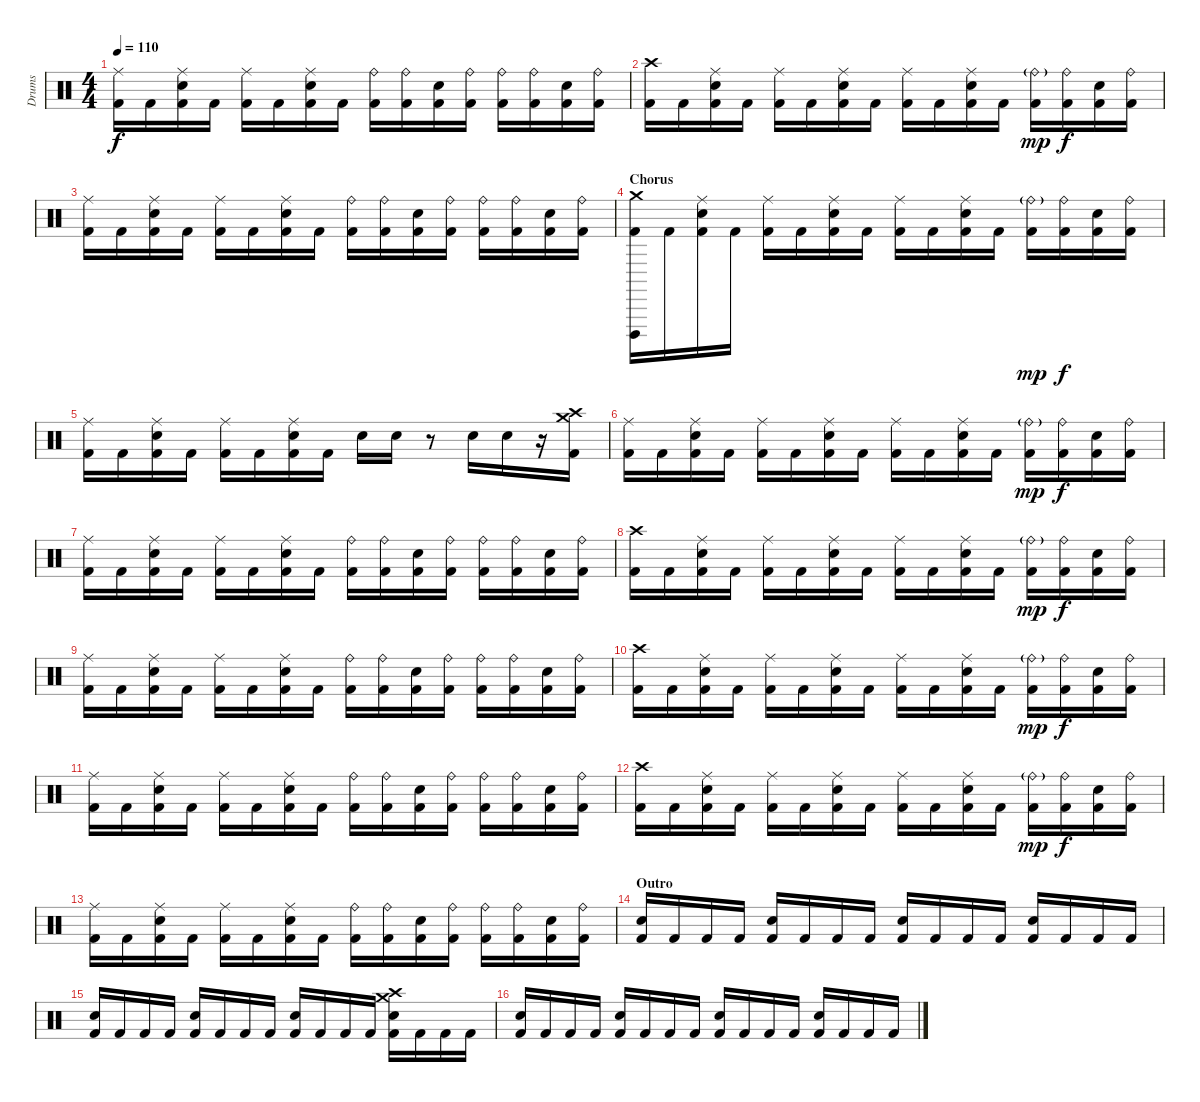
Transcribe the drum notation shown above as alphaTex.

\track ("Drums" "Drums") {instrument percussion}
\staff {score}
\articulation defaults
\ts (4 4)
\tempo 110
\clef neutral
\ks c
("Ride (middle)" "Kick (hit) 2").16{dy f} "Kick (hit) 2".16 ("Ride (middle)" "Snare (hit) 2" "Kick (hit) 2").16 "Kick (hit) 2".16 ("Ride (middle)" "Kick (hit) 2").16 "Kick (hit) 2".16 ("Ride (middle)" "Snare (hit) 2" "Kick (hit) 2").16 "Kick (hit) 2".16 ("Ride (bell)" "Kick (hit) 2").16 ("Ride (bell)" "Kick (hit) 2").16 ("Snare (hit) 2" "Kick (hit) 2").16 ("Ride (bell)" "Kick (hit) 2").16 ("Ride (bell)" "Kick (hit) 2").16 ("Ride (bell)" "Kick (hit) 2").16 ("Snare (hit) 2" "Kick (hit) 2").16 ("Ride (bell)" "Kick (hit) 2").16 |
("Crash high (hit)" "Kick (hit) 2").16 "Kick (hit) 2".16 ("Ride (middle)" "Snare (hit) 2" "Kick (hit) 2").16 "Kick (hit) 2".16 ("Ride (middle)" "Kick (hit) 2").16 "Kick (hit) 2".16 ("Ride (middle)" "Snare (hit) 2" "Kick (hit) 2").16 "Kick (hit) 2".16 ("Ride (middle)" "Kick (hit) 2").16 "Kick (hit) 2".16 ("Ride (middle)" "Snare (hit) 2" "Kick (hit) 2").16 "Kick (hit) 2".16 ("Ride (bell)"{g} "Kick (hit) 2").16{dy mp} ("Ride (bell)" "Kick (hit) 2").16{dy f} ("Snare (hit) 2" "Kick (hit) 2").16 ("Ride (bell)" "Kick (hit) 2").16 |
("Ride (middle)" "Kick (hit) 2").16 "Kick (hit) 2".16 ("Ride (middle)" "Snare (hit) 2" "Kick (hit) 2").16 "Kick (hit) 2".16 ("Ride (middle)" "Kick (hit) 2").16 "Kick (hit) 2".16 ("Ride (middle)" "Snare (hit) 2" "Kick (hit) 2").16 "Kick (hit) 2".16 ("Ride (bell)" "Kick (hit) 2").16 ("Ride (bell)" "Kick (hit) 2").16 ("Snare (hit) 2" "Kick (hit) 2").16 ("Ride (bell)" "Kick (hit) 2").16 ("Ride (bell)" "Kick (hit) 2").16 ("Ride (bell)" "Kick (hit) 2").16 ("Snare (hit) 2" "Kick (hit) 2").16 ("Ride (bell)" "Kick (hit) 2").16 |
\section ("" "Chorus")
("Cuica (open)" "Crash medium (hit)" "Kick (hit) 2").16 "Kick (hit) 2".16 ("Ride (middle)" "Snare (hit) 2" "Kick (hit) 2").16 "Kick (hit) 2".16 ("Ride (middle)" "Kick (hit) 2").16 "Kick (hit) 2".16 ("Ride (middle)" "Snare (hit) 2" "Kick (hit) 2").16 "Kick (hit) 2".16 ("Ride (middle)" "Kick (hit) 2").16 "Kick (hit) 2".16 ("Ride (middle)" "Snare (hit) 2" "Kick (hit) 2").16 "Kick (hit) 2".16 ("Ride (bell)"{g} "Kick (hit) 2").16{dy mp} ("Ride (bell)" "Kick (hit) 2").16{dy f} ("Snare (hit) 2" "Kick (hit) 2").16 ("Ride (bell)" "Kick (hit) 2").16 |
("Ride (middle)" "Kick (hit) 2").16 "Kick (hit) 2".16 ("Ride (middle)" "Snare (hit) 2" "Kick (hit) 2").16 "Kick (hit) 2".16 ("Ride (middle)" "Kick (hit) 2").16 "Kick (hit) 2".16 ("Ride (middle)" "Snare (hit) 2" "Kick (hit) 2").16 "Kick (hit) 2".16 "Snare (hit) 2".16 "Snare (hit) 2".16 r.8 "Snare (hit) 2".16 "Snare (hit) 2".16 r.16 ("Crash high (hit)" "Crash medium (hit)" "Kick (hit) 2").16 |
("Ride (middle)" "Kick (hit) 2").16 "Kick (hit) 2".16 ("Ride (middle)" "Snare (hit) 2" "Kick (hit) 2").16 "Kick (hit) 2".16 ("Ride (middle)" "Kick (hit) 2").16 "Kick (hit) 2".16 ("Ride (middle)" "Snare (hit) 2" "Kick (hit) 2").16 "Kick (hit) 2".16 ("Ride (middle)" "Kick (hit) 2").16 "Kick (hit) 2".16 ("Ride (middle)" "Snare (hit) 2" "Kick (hit) 2").16 "Kick (hit) 2".16 ("Ride (bell)"{g} "Kick (hit) 2").16{dy mp} ("Ride (bell)" "Kick (hit) 2").16{dy f} ("Snare (hit) 2" "Kick (hit) 2").16 ("Ride (bell)" "Kick (hit) 2").16 |
("Ride (middle)" "Kick (hit) 2").16 "Kick (hit) 2".16 ("Ride (middle)" "Snare (hit) 2" "Kick (hit) 2").16 "Kick (hit) 2".16 ("Ride (middle)" "Kick (hit) 2").16 "Kick (hit) 2".16 ("Ride (middle)" "Snare (hit) 2" "Kick (hit) 2").16 "Kick (hit) 2".16 ("Ride (bell)" "Kick (hit) 2").16 ("Ride (bell)" "Kick (hit) 2").16 ("Snare (hit) 2" "Kick (hit) 2").16 ("Ride (bell)" "Kick (hit) 2").16 ("Ride (bell)" "Kick (hit) 2").16 ("Ride (bell)" "Kick (hit) 2").16 ("Snare (hit) 2" "Kick (hit) 2").16 ("Ride (bell)" "Kick (hit) 2").16 |
("Crash high (hit)" "Kick (hit) 2").16 "Kick (hit) 2".16 ("Ride (middle)" "Snare (hit) 2" "Kick (hit) 2").16 "Kick (hit) 2".16 ("Ride (middle)" "Kick (hit) 2").16 "Kick (hit) 2".16 ("Ride (middle)" "Snare (hit) 2" "Kick (hit) 2").16 "Kick (hit) 2".16 ("Ride (middle)" "Kick (hit) 2").16 "Kick (hit) 2".16 ("Ride (middle)" "Snare (hit) 2" "Kick (hit) 2").16 "Kick (hit) 2".16 ("Ride (bell)"{g} "Kick (hit) 2").16{dy mp} ("Ride (bell)" "Kick (hit) 2").16{dy f} ("Snare (hit) 2" "Kick (hit) 2").16 ("Ride (bell)" "Kick (hit) 2").16 |
("Ride (middle)" "Kick (hit) 2").16 "Kick (hit) 2".16 ("Ride (middle)" "Snare (hit) 2" "Kick (hit) 2").16 "Kick (hit) 2".16 ("Ride (middle)" "Kick (hit) 2").16 "Kick (hit) 2".16 ("Ride (middle)" "Snare (hit) 2" "Kick (hit) 2").16 "Kick (hit) 2".16 ("Ride (bell)" "Kick (hit) 2").16 ("Ride (bell)" "Kick (hit) 2").16 ("Snare (hit) 2" "Kick (hit) 2").16 ("Ride (bell)" "Kick (hit) 2").16 ("Ride (bell)" "Kick (hit) 2").16 ("Ride (bell)" "Kick (hit) 2").16 ("Snare (hit) 2" "Kick (hit) 2").16 ("Ride (bell)" "Kick (hit) 2").16 |
("Crash high (hit)" "Kick (hit) 2").16 "Kick (hit) 2".16 ("Ride (middle)" "Snare (hit) 2" "Kick (hit) 2").16 "Kick (hit) 2".16 ("Ride (middle)" "Kick (hit) 2").16 "Kick (hit) 2".16 ("Ride (middle)" "Snare (hit) 2" "Kick (hit) 2").16 "Kick (hit) 2".16 ("Ride (middle)" "Kick (hit) 2").16 "Kick (hit) 2".16 ("Ride (middle)" "Snare (hit) 2" "Kick (hit) 2").16 "Kick (hit) 2".16 ("Ride (bell)"{g} "Kick (hit) 2").16{dy mp} ("Ride (bell)" "Kick (hit) 2").16{dy f} ("Snare (hit) 2" "Kick (hit) 2").16 ("Ride (bell)" "Kick (hit) 2").16 |
("Ride (middle)" "Kick (hit) 2").16 "Kick (hit) 2".16 ("Ride (middle)" "Snare (hit) 2" "Kick (hit) 2").16 "Kick (hit) 2".16 ("Ride (middle)" "Kick (hit) 2").16 "Kick (hit) 2".16 ("Ride (middle)" "Snare (hit) 2" "Kick (hit) 2").16 "Kick (hit) 2".16 ("Ride (bell)" "Kick (hit) 2").16 ("Ride (bell)" "Kick (hit) 2").16 ("Snare (hit) 2" "Kick (hit) 2").16 ("Ride (bell)" "Kick (hit) 2").16 ("Ride (bell)" "Kick (hit) 2").16 ("Ride (bell)" "Kick (hit) 2").16 ("Snare (hit) 2" "Kick (hit) 2").16 ("Ride (bell)" "Kick (hit) 2").16 |
("Crash high (hit)" "Kick (hit) 2").16 "Kick (hit) 2".16 ("Ride (middle)" "Snare (hit) 2" "Kick (hit) 2").16 "Kick (hit) 2".16 ("Ride (middle)" "Kick (hit) 2").16 "Kick (hit) 2".16 ("Ride (middle)" "Snare (hit) 2" "Kick (hit) 2").16 "Kick (hit) 2".16 ("Ride (middle)" "Kick (hit) 2").16 "Kick (hit) 2".16 ("Ride (middle)" "Snare (hit) 2" "Kick (hit) 2").16 "Kick (hit) 2".16 ("Ride (bell)"{g} "Kick (hit) 2").16{dy mp} ("Ride (bell)" "Kick (hit) 2").16{dy f} ("Snare (hit) 2" "Kick (hit) 2").16 ("Ride (bell)" "Kick (hit) 2").16 |
("Ride (middle)" "Kick (hit) 2").16 "Kick (hit) 2".16 ("Ride (middle)" "Snare (hit) 2" "Kick (hit) 2").16 "Kick (hit) 2".16 ("Ride (middle)" "Kick (hit) 2").16 "Kick (hit) 2".16 ("Ride (middle)" "Snare (hit) 2" "Kick (hit) 2").16 "Kick (hit) 2".16 ("Ride (bell)" "Kick (hit) 2").16 ("Ride (bell)" "Kick (hit) 2").16 ("Snare (hit) 2" "Kick (hit) 2").16 ("Ride (bell)" "Kick (hit) 2").16 ("Ride (bell)" "Kick (hit) 2").16 ("Ride (bell)" "Kick (hit) 2").16 ("Snare (hit) 2" "Kick (hit) 2").16 ("Ride (bell)" "Kick (hit) 2").16 |
\section ("" "Outro")
("Snare (hit) 2" "Kick (hit) 2").16 "Kick (hit) 2".16 "Kick (hit) 2".16 "Kick (hit) 2".16 ("Snare (hit) 2" "Kick (hit) 2").16 "Kick (hit) 2".16 "Kick (hit) 2".16 "Kick (hit) 2".16 ("Snare (hit) 2" "Kick (hit) 2").16 "Kick (hit) 2".16 "Kick (hit) 2".16 "Kick (hit) 2".16 ("Snare (hit) 2" "Kick (hit) 2").16 "Kick (hit) 2".16 "Kick (hit) 2".16 "Kick (hit) 2".16 |
("Snare (hit) 2" "Kick (hit) 2").16 "Kick (hit) 2".16 "Kick (hit) 2".16 "Kick (hit) 2".16 ("Snare (hit) 2" "Kick (hit) 2").16 "Kick (hit) 2".16 "Kick (hit) 2".16 "Kick (hit) 2".16 ("Snare (hit) 2" "Kick (hit) 2").16 "Kick (hit) 2".16 "Kick (hit) 2".16 "Kick (hit) 2".16 ("Crash high (hit)" "Crash medium (hit)" "Snare (hit) 2" "Kick (hit) 2").16 "Kick (hit) 2".16 "Kick (hit) 2".16 "Kick (hit) 2".16 |
("Snare (hit) 2" "Kick (hit) 2").16 "Kick (hit) 2".16 "Kick (hit) 2".16 "Kick (hit) 2".16 ("Snare (hit) 2" "Kick (hit) 2").16 "Kick (hit) 2".16 "Kick (hit) 2".16 "Kick (hit) 2".16 ("Snare (hit) 2" "Kick (hit) 2").16 "Kick (hit) 2".16 "Kick (hit) 2".16 "Kick (hit) 2".16 ("Snare (hit) 2" "Kick (hit) 2").16 "Kick (hit) 2".16 "Kick (hit) 2".16 "Kick (hit) 2".16
